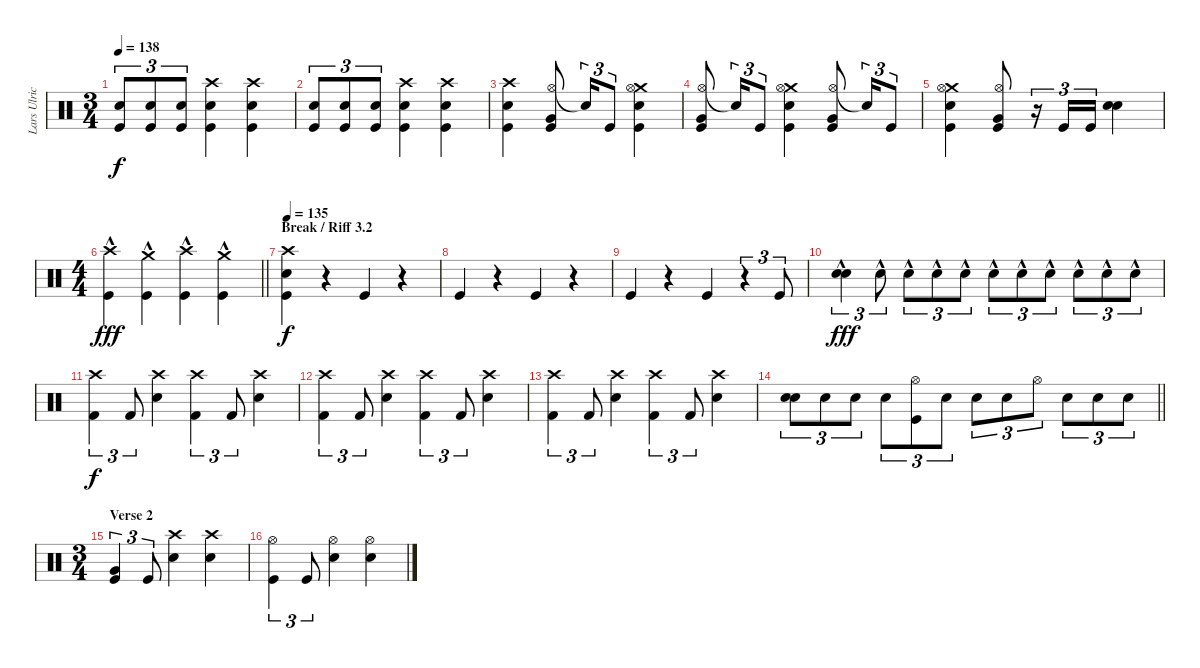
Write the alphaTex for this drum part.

\track ("Lars Ulrich" "Lars Ulric") {instrument percussion}
\staff {score}
\articulation defaults
\ts (3 4)
\tempo 138
\clef neutral
\ks c
("Snare (hit) 2" "Kick (hit)").8{tu (3 2) dy f} ("Snare (hit) 2" "Kick (hit)").8{tu (3 2)} ("Snare (hit) 2" "Kick (hit)").8{tu (3 2)} ("Crash high (hit)" "Snare (hit) 2" "Kick (hit)").4 ("Crash high (hit)" "Snare (hit) 2" "Kick (hit)").4 |
("Snare (hit) 2" "Kick (hit)").8{tu (3 2)} ("Snare (hit) 2" "Kick (hit)").8{tu (3 2)} ("Snare (hit) 2" "Kick (hit)").8{tu (3 2)} ("Crash high (hit)" "Snare (hit) 2" "Kick (hit)").4 ("Crash high (hit)" "Snare (hit) 2" "Kick (hit)").4 |
("Crash high (hit)" "Snare (hit) 2" "Kick (hit)").4 ("Hi-Hat (open)" "Very Low Tom (hit)" "Kick (hit)").8 "Snare (hit)"{t}.16{tu (3 2)} "Kick (hit)".8{tu (3 2)} ("Crash medium (hit)" "Hi-Hat (open)" "Snare (hit) 2" "Kick (hit)").4 |
("Hi-Hat (open)" "Very Low Tom (hit)" "Kick (hit)").8 "Snare (hit)"{t}.16{tu (3 2)} "Kick (hit)".8{tu (3 2)} ("Crash medium (hit)" "Hi-Hat (open)" "Snare (hit) 2" "Kick (hit)").4 ("Hi-Hat (open)" "Very Low Tom (hit)" "Kick (hit)").8 "Snare (hit)"{t}.16{tu (3 2)} "Kick (hit)".8{tu (3 2)} |
("Crash medium (hit)" "Hi-Hat (open)" "Snare (hit) 2" "Kick (hit)").4 ("Hi-Hat (open)" "Very Low Tom (hit)" "Kick (hit)").8 r.16{tu (3 2)} "Kick (hit)".16{tu (3 2)} "Kick (hit)".16{tu (3 2)} ("Snare (hit) 2" "Snare (hit) 2").4{bd 240} |
\ts (4 4)
\barLineRight lightlight
("Crash high (hit)"{hac} "Kick (hit)"{hac}).4{dy fff} ("Crash medium (hit)"{hac} "Kick (hit)"{hac}).4 ("Crash high (hit)"{hac} "Kick (hit)"{hac}).4 ("Crash medium (hit)"{hac} "Kick (hit)"{hac}).4 |
\section ("" "Break / Riff 3.2")
\tempo 135
("Crash high (hit)" "Snare (hit) 2" "Kick (hit)").4{dy f} r.4 "Kick (hit)".4 r.4 |
"Kick (hit)".4 r.4 "Kick (hit)".4 r.4 |
"Kick (hit)".4 r.4 "Kick (hit)".4 r.4{tu (3 2)} "Kick (hit)".8{tu (3 2)} |
("Snare (hit) 2"{hac} "Snare (hit) 2"{hac}).4{tu (3 2) bd 240 dy fff} "Snare (hit) 2"{hac}.8{tu (3 2)} "Snare (hit) 2"{hac}.8{tu (3 2)} "Snare (hit) 2"{hac}.8{tu (3 2)} "Snare (hit) 2"{hac}.8{tu (3 2)} "Snare (hit) 2"{hac}.8{tu (3 2)} "Snare (hit) 2"{hac}.8{tu (3 2)} "Snare (hit) 2"{hac}.8{tu (3 2)} "Snare (hit) 2"{hac}.8{tu (3 2)} "Snare (hit) 2"{hac}.8{tu (3 2)} "Snare (hit) 2"{hac}.8{tu (3 2)} |
("Crash high (hit)" "Kick (hit) 2").4{tu (3 2) dy f} "Kick (hit) 2".8{tu (3 2)} ("Crash high (hit)" "Snare (hit) 2").4 ("Crash high (hit)" "Kick (hit) 2").4{tu (3 2)} "Kick (hit) 2".8{tu (3 2)} ("Crash high (hit)" "Snare (hit) 2").4 |
("Crash high (hit)" "Kick (hit) 2").4{tu (3 2)} "Kick (hit) 2".8{tu (3 2)} ("Crash high (hit)" "Snare (hit) 2").4 ("Crash high (hit)" "Kick (hit) 2").4{tu (3 2)} "Kick (hit) 2".8{tu (3 2)} ("Crash high (hit)" "Snare (hit) 2").4 |
("Crash high (hit)" "Kick (hit) 2").4{tu (3 2)} "Kick (hit) 2".8{tu (3 2)} ("Crash high (hit)" "Snare (hit) 2").4 ("Crash high (hit)" "Kick (hit) 2").4{tu (3 2)} "Kick (hit) 2".8{tu (3 2)} ("Crash high (hit)" "Snare (hit) 2").4 |
\barLineRight lightlight
("Snare (hit) 2" "Snare (hit) 2").8{tu (3 2) bd 240} "Snare (hit) 2".8{tu (3 2)} "Snare (hit) 2".8{tu (3 2)} "Snare (hit) 2".8{tu (3 2)} ("Hi-Hat (open)" "Kick (hit)").8{tu (3 2)} "Snare (hit) 2".8{tu (3 2)} "Snare (hit) 2".8{tu (3 2)} "Snare (hit) 2".8{tu (3 2)} "Hi-Hat (open)".8{tu (3 2)} "Snare (hit) 2".8{tu (3 2)} "Snare (hit) 2".8{tu (3 2)} "Snare (hit) 2".8{tu (3 2)} |
\ts (3 4)
\section ("" "Verse 2")
("Very Low Tom (hit)" "Kick (hit)").4{tu (3 2)} "Kick (hit)".8{tu (3 2)} ("Crash high (hit)" "Snare (hit) 2").4 ("Crash high (hit)" "Snare (hit) 2").4 |
("Hi-Hat (open)" "Kick (hit)").4{tu (3 2)} "Kick (hit)".8{tu (3 2)} ("Hi-Hat (open)" "Snare (hit) 2").4 ("Hi-Hat (open)" "Snare (hit) 2").4
